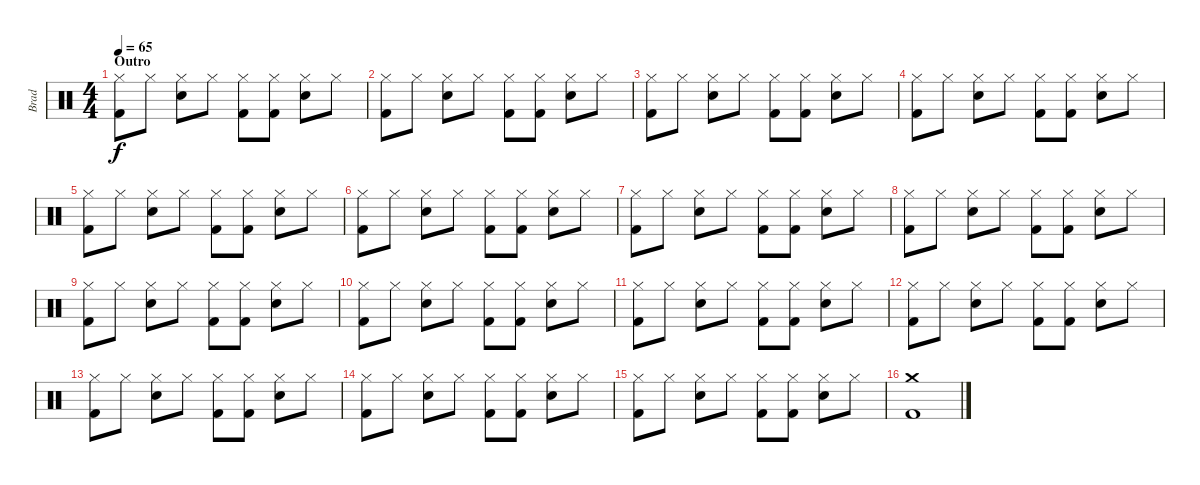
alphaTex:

\track ("Brad" "Brad") {instrument percussion}
\staff {score}
\articulation defaults
\ts (4 4)
\section ("" "Outro")
\tempo 65
\clef neutral
\ks c
("Hi-Hat (closed)" "Kick (hit) 2").8{dy f} "Hi-Hat (closed)".8 ("Hi-Hat (closed)" "Electric Snare (hit)").8 "Hi-Hat (closed)".8 ("Hi-Hat (closed)" "Kick (hit) 2").8 ("Hi-Hat (closed)" "Kick (hit) 2").8 ("Hi-Hat (closed)" "Electric Snare (hit)").8 "Hi-Hat (closed)".8 |
("Hi-Hat (closed)" "Kick (hit) 2").8 "Hi-Hat (closed)".8 ("Hi-Hat (closed)" "Electric Snare (hit)").8 "Hi-Hat (closed)".8 ("Hi-Hat (closed)" "Kick (hit) 2").8 ("Hi-Hat (closed)" "Kick (hit) 2").8 ("Hi-Hat (closed)" "Electric Snare (hit)").8 "Hi-Hat (closed)".8 |
("Hi-Hat (closed)" "Kick (hit) 2").8 "Hi-Hat (closed)".8 ("Hi-Hat (closed)" "Electric Snare (hit)").8 "Hi-Hat (closed)".8 ("Hi-Hat (closed)" "Kick (hit) 2").8 ("Hi-Hat (closed)" "Kick (hit) 2").8 ("Hi-Hat (closed)" "Electric Snare (hit)").8 "Hi-Hat (closed)".8 |
("Hi-Hat (closed)" "Kick (hit) 2").8 "Hi-Hat (closed)".8 ("Hi-Hat (closed)" "Electric Snare (hit)").8 "Hi-Hat (closed)".8 ("Hi-Hat (closed)" "Kick (hit) 2").8 ("Hi-Hat (closed)" "Kick (hit) 2").8 ("Hi-Hat (closed)" "Electric Snare (hit)").8 "Hi-Hat (closed)".8 |
("Hi-Hat (closed)" "Kick (hit) 2").8 "Hi-Hat (closed)".8 ("Hi-Hat (closed)" "Electric Snare (hit)").8 "Hi-Hat (closed)".8 ("Hi-Hat (closed)" "Kick (hit) 2").8 ("Hi-Hat (closed)" "Kick (hit) 2").8 ("Hi-Hat (closed)" "Electric Snare (hit)").8 "Hi-Hat (closed)".8 |
("Hi-Hat (closed)" "Kick (hit) 2").8 "Hi-Hat (closed)".8 ("Hi-Hat (closed)" "Electric Snare (hit)").8 "Hi-Hat (closed)".8 ("Hi-Hat (closed)" "Kick (hit) 2").8 ("Hi-Hat (closed)" "Kick (hit) 2").8 ("Hi-Hat (closed)" "Electric Snare (hit)").8 "Hi-Hat (closed)".8 |
("Hi-Hat (closed)" "Kick (hit) 2").8 "Hi-Hat (closed)".8 ("Hi-Hat (closed)" "Electric Snare (hit)").8 "Hi-Hat (closed)".8 ("Hi-Hat (closed)" "Kick (hit) 2").8 ("Hi-Hat (closed)" "Kick (hit) 2").8 ("Hi-Hat (closed)" "Electric Snare (hit)").8 "Hi-Hat (closed)".8 |
("Hi-Hat (closed)" "Kick (hit) 2").8 "Hi-Hat (closed)".8 ("Hi-Hat (closed)" "Electric Snare (hit)").8 "Hi-Hat (closed)".8 ("Hi-Hat (closed)" "Kick (hit) 2").8 ("Hi-Hat (closed)" "Kick (hit) 2").8 ("Hi-Hat (closed)" "Electric Snare (hit)").8 "Hi-Hat (closed)".8 |
("Hi-Hat (closed)" "Kick (hit) 2").8 "Hi-Hat (closed)".8 ("Hi-Hat (closed)" "Electric Snare (hit)").8 "Hi-Hat (closed)".8 ("Hi-Hat (closed)" "Kick (hit) 2").8 ("Hi-Hat (closed)" "Kick (hit) 2").8 ("Hi-Hat (closed)" "Electric Snare (hit)").8 "Hi-Hat (closed)".8 |
("Hi-Hat (closed)" "Kick (hit) 2").8 "Hi-Hat (closed)".8 ("Hi-Hat (closed)" "Electric Snare (hit)").8 "Hi-Hat (closed)".8 ("Hi-Hat (closed)" "Kick (hit) 2").8 ("Hi-Hat (closed)" "Kick (hit) 2").8 ("Hi-Hat (closed)" "Electric Snare (hit)").8 "Hi-Hat (closed)".8 |
("Hi-Hat (closed)" "Kick (hit) 2").8 "Hi-Hat (closed)".8 ("Hi-Hat (closed)" "Electric Snare (hit)").8 "Hi-Hat (closed)".8 ("Hi-Hat (closed)" "Kick (hit) 2").8 ("Hi-Hat (closed)" "Kick (hit) 2").8 ("Hi-Hat (closed)" "Electric Snare (hit)").8 "Hi-Hat (closed)".8 |
("Hi-Hat (closed)" "Kick (hit) 2").8 "Hi-Hat (closed)".8 ("Hi-Hat (closed)" "Electric Snare (hit)").8 "Hi-Hat (closed)".8 ("Hi-Hat (closed)" "Kick (hit) 2").8 ("Hi-Hat (closed)" "Kick (hit) 2").8 ("Hi-Hat (closed)" "Electric Snare (hit)").8 "Hi-Hat (closed)".8 |
("Hi-Hat (closed)" "Kick (hit) 2").8 "Hi-Hat (closed)".8 ("Hi-Hat (closed)" "Electric Snare (hit)").8 "Hi-Hat (closed)".8 ("Hi-Hat (closed)" "Kick (hit) 2").8 ("Hi-Hat (closed)" "Kick (hit) 2").8 ("Hi-Hat (closed)" "Electric Snare (hit)").8 "Hi-Hat (closed)".8 |
("Hi-Hat (closed)" "Kick (hit) 2").8 "Hi-Hat (closed)".8 ("Hi-Hat (closed)" "Electric Snare (hit)").8 "Hi-Hat (closed)".8 ("Hi-Hat (closed)" "Kick (hit) 2").8 ("Hi-Hat (closed)" "Kick (hit) 2").8 ("Hi-Hat (closed)" "Electric Snare (hit)").8 "Hi-Hat (closed)".8 |
("Hi-Hat (closed)" "Kick (hit) 2").8 "Hi-Hat (closed)".8 ("Hi-Hat (closed)" "Electric Snare (hit)").8 "Hi-Hat (closed)".8 ("Hi-Hat (closed)" "Kick (hit) 2").8 ("Hi-Hat (closed)" "Kick (hit) 2").8 ("Hi-Hat (closed)" "Electric Snare (hit)").8 "Hi-Hat (closed)".8 |
("Crash medium (hit)" "Kick (hit) 2").1
